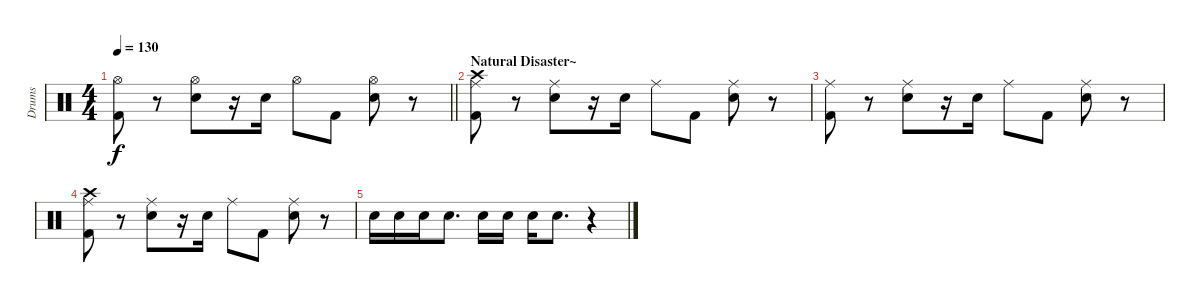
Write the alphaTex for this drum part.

\track ("Drums" "Drums") {instrument percussion}
\staff {score}
\articulation defaults
\ts (4 4)
\tempo 130
\clef neutral
\barLineRight lightlight
\ks c
("Hi-Hat (open)" "Kick (hit) 2").8{dy f} r.8 ("Hi-Hat (open)" "Snare (hit) 2").8 r.16 "Snare (hit) 2".16 "Hi-Hat (open)".8 "Kick (hit) 2".8 ("Hi-Hat (open)" "Snare (hit) 2").8 r.8 |
\section ("" "Natural Disaster~")
("Crash high (hit)" "Ride (middle)" "Kick (hit) 2").8 r.8 ("Ride (middle)" "Snare (hit) 2").8 r.16 "Snare (hit) 2".16 "Ride (middle)".8 "Kick (hit) 2".8 ("Ride (middle)" "Snare (hit) 2").8 r.8 |
("Ride (middle)" "Kick (hit) 2").8 r.8 ("Ride (middle)" "Snare (hit) 2").8 r.16 "Snare (hit) 2".16 "Ride (middle)".8 "Kick (hit) 2".8 ("Ride (middle)" "Snare (hit) 2").8 r.8 |
("Crash high (hit)" "Ride (middle)" "Kick (hit) 2").8 r.8 ("Ride (middle)" "Snare (hit) 2").8 r.16 "Snare (hit) 2".16 "Ride (middle)".8 "Kick (hit) 2".8 ("Ride (middle)" "Snare (hit) 2").8 r.8 |
"Snare (hit) 2".16 "Snare (hit) 2".16 "Snare (hit) 2".16 "Snare (hit) 2".8{d} "Snare (hit) 2".16 "Snare (hit) 2".16 "Snare (hit) 2".16 "Snare (hit) 2".8{d} r.4
